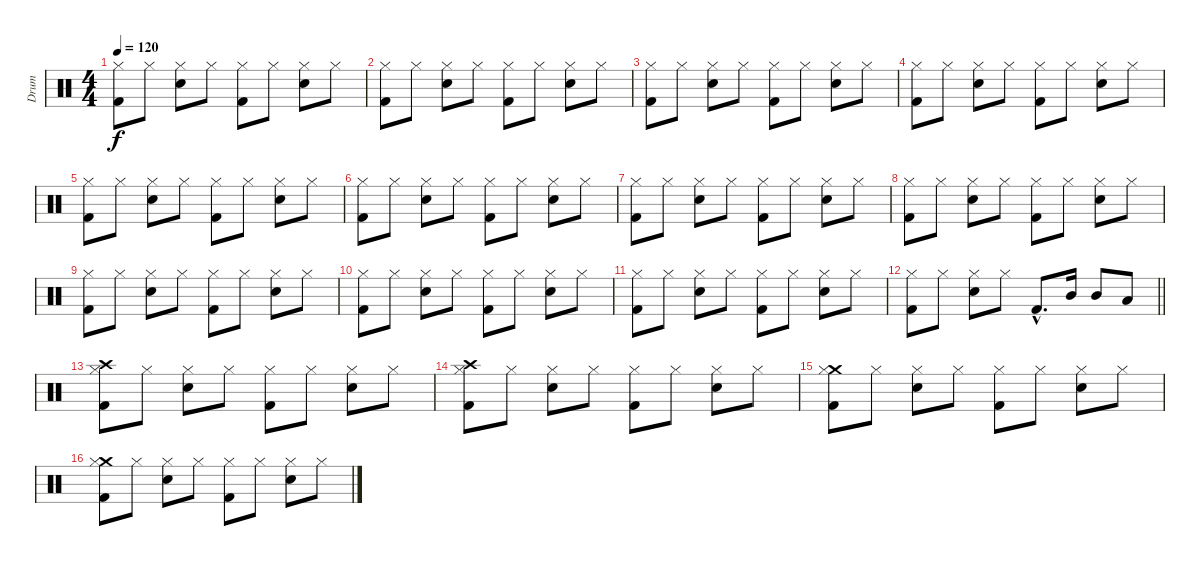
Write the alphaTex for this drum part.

\track ("Drum" "Drum") {instrument percussion}
\staff {score}
\articulation defaults
\ts (4 4)
\tempo 120
\clef neutral
\ks c
("Hi-Hat (closed)" "Kick (hit) 2").8{dy f} "Hi-Hat (closed)".8 ("Hi-Hat (closed)" "Snare (hit) 2").8 "Hi-Hat (closed)".8 ("Hi-Hat (closed)" "Kick (hit) 2").8 "Hi-Hat (closed)".8 ("Hi-Hat (closed)" "Snare (hit) 2").8 "Hi-Hat (closed)".8 |
("Hi-Hat (closed)" "Kick (hit) 2").8 "Hi-Hat (closed)".8 ("Hi-Hat (closed)" "Snare (hit) 2").8 "Hi-Hat (closed)".8 ("Hi-Hat (closed)" "Kick (hit) 2").8 "Hi-Hat (closed)".8 ("Hi-Hat (closed)" "Snare (hit) 2").8 "Hi-Hat (closed)".8 |
("Hi-Hat (closed)" "Kick (hit) 2").8 "Hi-Hat (closed)".8 ("Hi-Hat (closed)" "Snare (hit) 2").8 "Hi-Hat (closed)".8 ("Hi-Hat (closed)" "Kick (hit) 2").8 "Hi-Hat (closed)".8 ("Hi-Hat (closed)" "Snare (hit) 2").8 "Hi-Hat (closed)".8 |
("Hi-Hat (closed)" "Kick (hit) 2").8 "Hi-Hat (closed)".8 ("Hi-Hat (closed)" "Snare (hit) 2").8 "Hi-Hat (closed)".8 ("Hi-Hat (closed)" "Kick (hit) 2").8 "Hi-Hat (closed)".8 ("Hi-Hat (closed)" "Snare (hit) 2").8 "Hi-Hat (closed)".8 |
("Hi-Hat (closed)" "Kick (hit) 2").8 "Hi-Hat (closed)".8 ("Hi-Hat (closed)" "Snare (hit) 2").8 "Hi-Hat (closed)".8 ("Hi-Hat (closed)" "Kick (hit) 2").8 "Hi-Hat (closed)".8 ("Hi-Hat (closed)" "Snare (hit) 2").8 "Hi-Hat (closed)".8 |
("Hi-Hat (closed)" "Kick (hit) 2").8 "Hi-Hat (closed)".8 ("Hi-Hat (closed)" "Snare (hit) 2").8 "Hi-Hat (closed)".8 ("Hi-Hat (closed)" "Kick (hit) 2").8 "Hi-Hat (closed)".8 ("Hi-Hat (closed)" "Snare (hit) 2").8 "Hi-Hat (closed)".8 |
("Hi-Hat (closed)" "Kick (hit) 2").8 "Hi-Hat (closed)".8 ("Hi-Hat (closed)" "Snare (hit) 2").8 "Hi-Hat (closed)".8 ("Hi-Hat (closed)" "Kick (hit) 2").8 "Hi-Hat (closed)".8 ("Hi-Hat (closed)" "Snare (hit) 2").8 "Hi-Hat (closed)".8 |
("Hi-Hat (closed)" "Kick (hit) 2").8 "Hi-Hat (closed)".8 ("Hi-Hat (closed)" "Snare (hit) 2").8 "Hi-Hat (closed)".8 ("Hi-Hat (closed)" "Kick (hit) 2").8 "Hi-Hat (closed)".8 ("Hi-Hat (closed)" "Snare (hit) 2").8 "Hi-Hat (closed)".8 |
("Hi-Hat (closed)" "Kick (hit) 2").8 "Hi-Hat (closed)".8 ("Hi-Hat (closed)" "Snare (hit) 2").8 "Hi-Hat (closed)".8 ("Hi-Hat (closed)" "Kick (hit) 2").8 "Hi-Hat (closed)".8 ("Hi-Hat (closed)" "Snare (hit) 2").8 "Hi-Hat (closed)".8 |
("Hi-Hat (closed)" "Kick (hit) 2").8 "Hi-Hat (closed)".8 ("Hi-Hat (closed)" "Snare (hit) 2").8 "Hi-Hat (closed)".8 ("Hi-Hat (closed)" "Kick (hit) 2").8 "Hi-Hat (closed)".8 ("Hi-Hat (closed)" "Snare (hit) 2").8 "Hi-Hat (closed)".8 |
("Hi-Hat (closed)" "Kick (hit) 2").8 "Hi-Hat (closed)".8 ("Hi-Hat (closed)" "Snare (hit) 2").8 "Hi-Hat (closed)".8 ("Hi-Hat (closed)" "Kick (hit) 2").8 "Hi-Hat (closed)".8 ("Hi-Hat (closed)" "Snare (hit) 2").8 "Hi-Hat (closed)".8 |
\barLineRight lightlight
("Hi-Hat (closed)" "Kick (hit) 2").8 "Hi-Hat (closed)".8 ("Hi-Hat (closed)" "Snare (hit) 2").8 "Hi-Hat (closed)".8 "Kick (hit) 2"{hac}.8{d} "Mid Tom (hit)".16 "Mid Tom (hit)".8 "Low Tom (hit)".8 |
\section ("" "")
("Crash high (hit)" "Hi-Hat (closed)" "Kick (hit) 2").8 "Hi-Hat (closed)".8 ("Hi-Hat (closed)" "Snare (hit) 2").8 "Hi-Hat (closed)".8 ("Hi-Hat (closed)" "Kick (hit) 2").8 "Hi-Hat (closed)".8 ("Hi-Hat (closed)" "Snare (hit) 2").8 "Hi-Hat (closed)".8 |
("Crash high (hit)" "Hi-Hat (closed)" "Kick (hit) 2").8 "Hi-Hat (closed)".8 ("Hi-Hat (closed)" "Snare (hit) 2").8 "Hi-Hat (closed)".8 ("Hi-Hat (closed)" "Kick (hit) 2").8 "Hi-Hat (closed)".8 ("Hi-Hat (closed)" "Snare (hit) 2").8 "Hi-Hat (closed)".8 |
("Crash medium (hit)" "Hi-Hat (closed)" "Kick (hit) 2").8 "Hi-Hat (closed)".8 ("Hi-Hat (closed)" "Snare (hit) 2").8 "Hi-Hat (closed)".8 ("Hi-Hat (closed)" "Kick (hit) 2").8 "Hi-Hat (closed)".8 ("Hi-Hat (closed)" "Snare (hit) 2").8 "Hi-Hat (closed)".8 |
("Crash medium (hit)" "Hi-Hat (closed)" "Kick (hit) 2").8 "Hi-Hat (closed)".8 ("Hi-Hat (closed)" "Snare (hit) 2").8 "Hi-Hat (closed)".8 ("Hi-Hat (closed)" "Kick (hit) 2").8 "Hi-Hat (closed)".8 ("Hi-Hat (closed)" "Snare (hit) 2").8 "Hi-Hat (closed)".8
